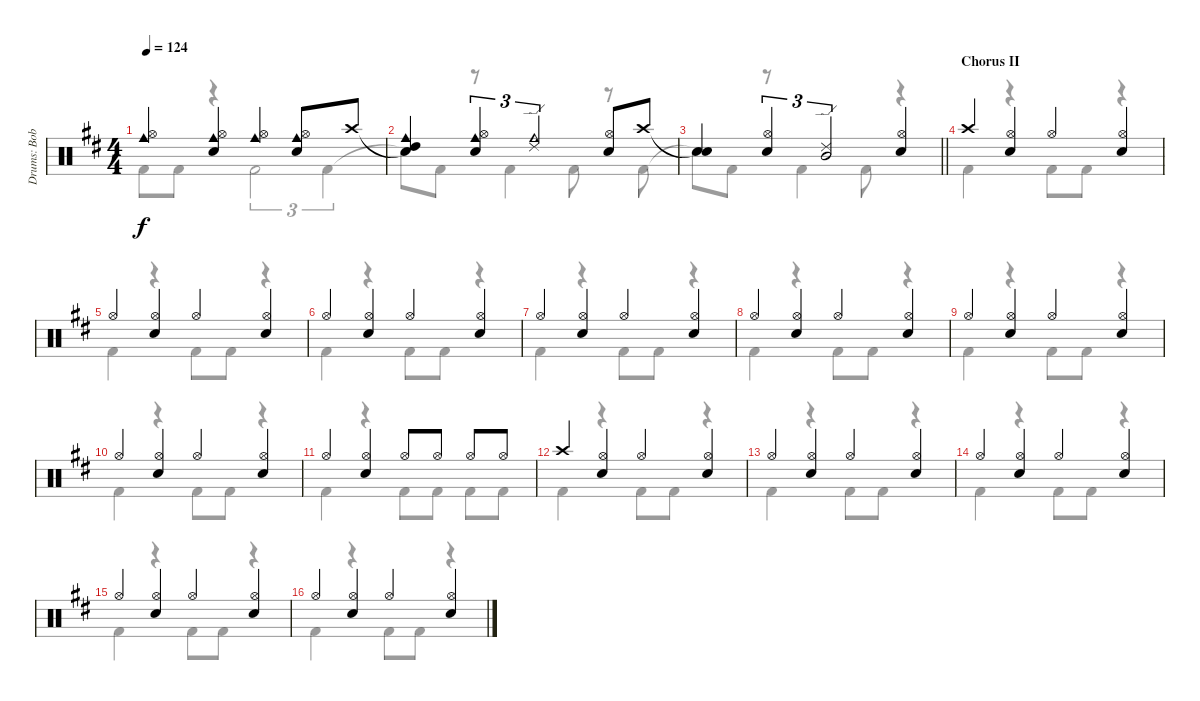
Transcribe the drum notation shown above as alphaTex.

\track ("Drums: Bobby" "Drums: Bob") {instrument percussion}
\staff {score}
\articulation defaults
\voice
\ts (4 4)
\tempo 124
\clef neutral
\ks d
("Hi-Hat (open)" "Cowbell medium (hit)").4{dy f} ("Hi-Hat (open)" "Snare (hit) 2" "Cowbell medium (hit)").4 ("Hi-Hat (open)" "Cowbell medium (hit)").4 ("Hi-Hat (open)" "Snare (hit) 2" "Cowbell medium (hit)").8 "Crash high (hit)".8 |
("Snare (hit)"{t} "High Tom (hit)" "Cowbell medium (hit)").4 ("Hi-Hat (open)" "Snare (hit) 2" "Cowbell medium (hit)").4{tu (3 2)} ("Ride (edge) 2" "Cowbell medium (hit)").2{tu (3 2)} ("Hi-Hat (open)" "Snare (hit) 2").8 "Crash high (hit)".8 |
\barLineRight lightlight
("Snare (hit)"{t} "Snare (hit) 2").4 ("Hi-Hat (open)" "Snare (hit) 2").4{tu (3 2)} ("Ride (edge) 2" "Mid Tom (hit)").2{tu (3 2)} ("Hi-Hat (open)" "Snare (hit) 2").4 |
\section ("" "Chorus II")
"Crash high (hit)".4 ("Hi-Hat (open)" "Snare (hit) 2").4 "Hi-Hat (open)".4 ("Hi-Hat (open)" "Snare (hit) 2").4 |
"Hi-Hat (open)".4 ("Hi-Hat (open)" "Snare (hit) 2").4 "Hi-Hat (open)".4 ("Hi-Hat (open)" "Snare (hit) 2").4 |
"Hi-Hat (open)".4 ("Hi-Hat (open)" "Snare (hit) 2").4 "Hi-Hat (open)".4 ("Hi-Hat (open)" "Snare (hit) 2").4 |
"Hi-Hat (open)".4 ("Hi-Hat (open)" "Snare (hit) 2").4 "Hi-Hat (open)".4 ("Hi-Hat (open)" "Snare (hit) 2").4 |
"Hi-Hat (open)".4 ("Hi-Hat (open)" "Snare (hit) 2").4 "Hi-Hat (open)".4 ("Hi-Hat (open)" "Snare (hit) 2").4 |
"Hi-Hat (open)".4 ("Hi-Hat (open)" "Snare (hit) 2").4 "Hi-Hat (open)".4 ("Hi-Hat (open)" "Snare (hit) 2").4 |
"Hi-Hat (open)".4 ("Hi-Hat (open)" "Snare (hit) 2").4 "Hi-Hat (open)".4 ("Hi-Hat (open)" "Snare (hit) 2").4 |
"Hi-Hat (open)".4 ("Hi-Hat (open)" "Snare (hit) 2").4 "Hi-Hat (open)".8 "Hi-Hat (open)".8 "Hi-Hat (open)".8 "Hi-Hat (open)".8 |
"Crash high (hit)".4 ("Hi-Hat (open)" "Snare (hit) 2").4 "Hi-Hat (open)".4 ("Hi-Hat (open)" "Snare (hit) 2").4 |
"Hi-Hat (open)".4 ("Hi-Hat (open)" "Snare (hit) 2").4 "Hi-Hat (open)".4 ("Hi-Hat (open)" "Snare (hit) 2").4 |
"Hi-Hat (open)".4 ("Hi-Hat (open)" "Snare (hit) 2").4 "Hi-Hat (open)".4 ("Hi-Hat (open)" "Snare (hit) 2").4 |
"Hi-Hat (open)".4 ("Hi-Hat (open)" "Snare (hit) 2").4 "Hi-Hat (open)".4 ("Hi-Hat (open)" "Snare (hit) 2").4 |
"Hi-Hat (open)".4 ("Hi-Hat (open)" "Snare (hit) 2").4 "Hi-Hat (open)".4 ("Hi-Hat (open)" "Snare (hit) 2").4
\voice
\clef neutral
\ottava regular
\simile none
\ks d "Kick (hit) 2"{t}.8{dy f} "Kick (hit) 2".8
r.4 "Kick (hit) 2".2{tu (3 2)} "Kick (hit) 2".4{tu (3 2)} |
"Snare (hit)"{t}.8 "Kick (hit) 2".8 r.8 "Kick (hit) 2".4 "Kick (hit) 2".8 r.8 "Kick (hit) 2".8 |
\barLineRight lightlight "Snare (hit)"{t}.8 "Kick (hit) 2".8
r.8 "Kick (hit) 2".4 "Kick (hit) 2".8 r.4 |
"Kick (hit) 2".4 r.4 "Kick (hit) 2".8 "Kick (hit) 2".8 r.4 |
"Kick (hit) 2".4 r.4 "Kick (hit) 2".8 "Kick (hit) 2".8 r.4 |
"Kick (hit) 2".4 r.4 "Kick (hit) 2".8 "Kick (hit) 2".8 r.4 |
"Kick (hit) 2".4 r.4 "Kick (hit) 2".8 "Kick (hit) 2".8 r.4 |
"Kick (hit) 2".4 r.4 "Kick (hit) 2".8 "Kick (hit) 2".8 r.4 |
"Kick (hit) 2".4 r.4 "Kick (hit) 2".8 "Kick (hit) 2".8 r.4 |
"Kick (hit) 2".4 r.4 "Kick (hit) 2".8 "Kick (hit) 2".8 r.4 |
"Kick (hit) 2".4 r.4 "Kick (hit) 2".8 "Kick (hit) 2".8 "Kick (hit) 2".8 "Kick (hit) 2".8 |
"Kick (hit) 2".4 r.4 "Kick (hit) 2".8 "Kick (hit) 2".8 r.4 |
"Kick (hit) 2".4 r.4 "Kick (hit) 2".8 "Kick (hit) 2".8 r.4 |
"Kick (hit) 2".4 r.4 "Kick (hit) 2".8 "Kick (hit) 2".8 r.4 |
"Kick (hit) 2".4 r.4 "Kick (hit) 2".8 "Kick (hit) 2".8 r.4 |
"Kick (hit) 2".4 r.4 "Kick (hit) 2".8 "Kick (hit) 2".8 r.4
